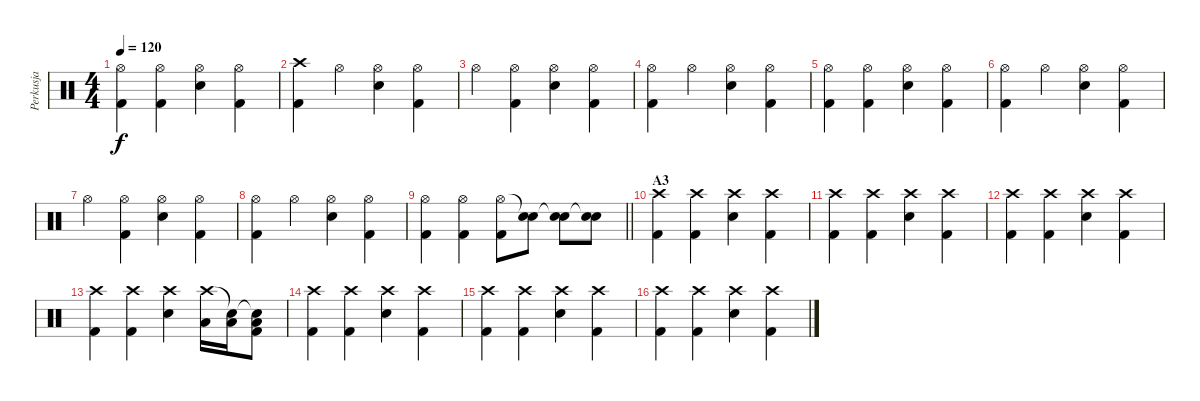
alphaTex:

\track ("Perkusja" "Perkusja") {instrument percussion}
\staff {score}
\articulation defaults
\ts (4 4)
\tempo 120
\clef neutral
\ks c
("Hi-Hat (open)" "Kick (hit) 2").4{dy f} ("Hi-Hat (open)" "Kick (hit) 2").4 ("Hi-Hat (open)" "Electric Snare (hit)").4 ("Hi-Hat (open)" "Kick (hit) 2").4 |
("Crash high (hit)" "Kick (hit) 2").4 "Hi-Hat (open)".4 ("Hi-Hat (open)" "Electric Snare (hit)").4 ("Hi-Hat (open)" "Kick (hit) 2").4 |
"Hi-Hat (open)".4 ("Hi-Hat (open)" "Kick (hit) 2").4 ("Hi-Hat (open)" "Electric Snare (hit)").4 ("Hi-Hat (open)" "Kick (hit) 2").4 |
("Hi-Hat (open)" "Kick (hit) 2").4 "Hi-Hat (open)".4 ("Hi-Hat (open)" "Electric Snare (hit)").4 ("Hi-Hat (open)" "Kick (hit) 2").4 |
("Hi-Hat (open)" "Kick (hit) 2").4 ("Hi-Hat (open)" "Kick (hit) 2").4 ("Hi-Hat (open)" "Electric Snare (hit)").4 ("Hi-Hat (open)" "Kick (hit) 2").4 |
("Hi-Hat (open)" "Kick (hit) 2").4 "Hi-Hat (open)".4 ("Hi-Hat (open)" "Electric Snare (hit)").4 ("Hi-Hat (open)" "Kick (hit) 2").4 |
"Hi-Hat (open)".4 ("Hi-Hat (open)" "Kick (hit) 2").4 ("Hi-Hat (open)" "Electric Snare (hit)").4 ("Hi-Hat (open)" "Kick (hit) 2").4 |
("Hi-Hat (open)" "Kick (hit) 2").4 "Hi-Hat (open)".4 ("Hi-Hat (open)" "Electric Snare (hit)").4 ("Hi-Hat (open)" "Kick (hit) 2").4 |
\barLineRight lightlight
("Hi-Hat (open)" "Kick (hit) 2").4 ("Hi-Hat (open)" "Kick (hit) 2").4 ("Hi-Hat (open)" "Kick (hit) 2").8 ("Snare (hit)"{t} "Electric Snare (hit)").8 ("Snare (hit)"{t} "Electric Snare (hit)").8 ("Snare (hit)"{t} "Electric Snare (hit)").8 |
\section ("" "A3")
("Crash high (hit)" "Kick (hit) 2").4 ("Crash high (hit)" "Kick (hit) 2").4 ("Crash high (hit)" "Electric Snare (hit)").4 ("Crash high (hit)" "Kick (hit) 2").4 |
("Crash high (hit)" "Kick (hit) 2").4 ("Crash high (hit)" "Kick (hit) 2").4 ("Crash high (hit)" "Electric Snare (hit)").4 ("Crash high (hit)" "Kick (hit) 2").4 |
("Crash high (hit)" "Kick (hit) 2").4 ("Crash high (hit)" "Kick (hit) 2").4 ("Crash high (hit)" "Electric Snare (hit)").4 ("Crash high (hit)" "Kick (hit) 2").4 |
("Crash high (hit)" "Kick (hit) 2").4 ("Crash high (hit)" "Kick (hit) 2").4 ("Crash high (hit)" "Electric Snare (hit)").4 ("Crash high (hit)" "Low Tom (hit)").16 ("Snare (hit)"{t} "Low Tom (hit)").16 ("Snare (hit)"{t} "Low Floor Tom (hit)" "Kick (hit) 2").8 |
("Crash high (hit)" "Kick (hit) 2").4 ("Crash high (hit)" "Kick (hit) 2").4 ("Crash high (hit)" "Electric Snare (hit)").4 ("Crash high (hit)" "Kick (hit) 2").4 |
("Crash high (hit)" "Kick (hit) 2").4 ("Crash high (hit)" "Kick (hit) 2").4 ("Crash high (hit)" "Electric Snare (hit)").4 ("Crash high (hit)" "Kick (hit) 2").4 |
("Crash high (hit)" "Kick (hit) 2").4 ("Crash high (hit)" "Kick (hit) 2").4 ("Crash high (hit)" "Electric Snare (hit)").4 ("Crash high (hit)" "Kick (hit) 2").4
